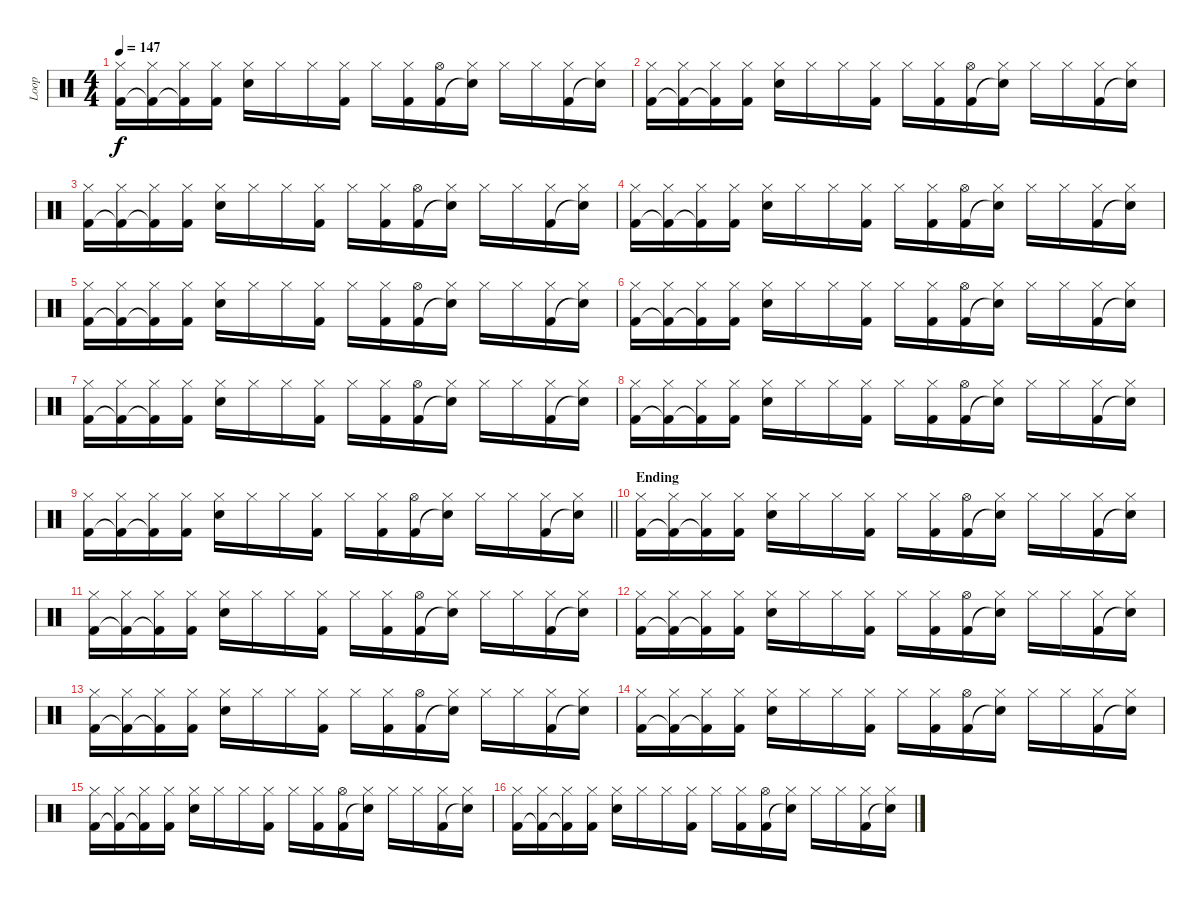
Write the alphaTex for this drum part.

\track ("Loop" "Loop") {instrument percussion}
\staff {score}
\articulation defaults
\ts (4 4)
\tempo 147
\clef neutral
\ks aminor
("Hi-Hat (closed)" "Kick (hit) 2").16{dy f} ("Hi-Hat (closed)" "Kick (hit) 2"{t}).16 ("Hi-Hat (closed)" "Kick (hit) 2"{t}).16 ("Hi-Hat (closed)" "Kick (hit) 2").16 ("Hi-Hat (closed)" "Electric Snare (hit)").16 "Hi-Hat (closed)".16 "Hi-Hat (closed)".16 ("Hi-Hat (closed)" "Kick (hit) 2").16 "Hi-Hat (closed)".16 ("Hi-Hat (closed)" "Kick (hit) 2").16 ("Hi-Hat (open)" "Kick (hit) 2").16 ("Hi-Hat (closed)" "Snare (hit)"{t}).16 "Hi-Hat (closed)".16 "Hi-Hat (closed)".16 ("Hi-Hat (closed)" "Kick (hit) 2").16 ("Hi-Hat (closed)" "Snare (hit)"{t}).16 |
("Hi-Hat (closed)" "Kick (hit) 2").16 ("Hi-Hat (closed)" "Kick (hit) 2"{t}).16 ("Hi-Hat (closed)" "Kick (hit) 2"{t}).16 ("Hi-Hat (closed)" "Kick (hit) 2").16 ("Hi-Hat (closed)" "Electric Snare (hit)").16 "Hi-Hat (closed)".16 "Hi-Hat (closed)".16 ("Hi-Hat (closed)" "Kick (hit) 2").16 "Hi-Hat (closed)".16 ("Hi-Hat (closed)" "Kick (hit) 2").16 ("Hi-Hat (open)" "Kick (hit) 2").16 ("Hi-Hat (closed)" "Snare (hit)"{t}).16 "Hi-Hat (closed)".16 "Hi-Hat (closed)".16 ("Hi-Hat (closed)" "Kick (hit) 2").16 ("Hi-Hat (closed)" "Snare (hit)"{t}).16 |
("Hi-Hat (closed)" "Kick (hit) 2").16 ("Hi-Hat (closed)" "Kick (hit) 2"{t}).16 ("Hi-Hat (closed)" "Kick (hit) 2"{t}).16 ("Hi-Hat (closed)" "Kick (hit) 2").16 ("Hi-Hat (closed)" "Electric Snare (hit)").16 "Hi-Hat (closed)".16 "Hi-Hat (closed)".16 ("Hi-Hat (closed)" "Kick (hit) 2").16 "Hi-Hat (closed)".16 ("Hi-Hat (closed)" "Kick (hit) 2").16 ("Hi-Hat (open)" "Kick (hit) 2").16 ("Hi-Hat (closed)" "Snare (hit)"{t}).16 "Hi-Hat (closed)".16 "Hi-Hat (closed)".16 ("Hi-Hat (closed)" "Kick (hit) 2").16 ("Hi-Hat (closed)" "Snare (hit)"{t}).16 |
("Hi-Hat (closed)" "Kick (hit) 2").16 ("Hi-Hat (closed)" "Kick (hit) 2"{t}).16 ("Hi-Hat (closed)" "Kick (hit) 2"{t}).16 ("Hi-Hat (closed)" "Kick (hit) 2").16 ("Hi-Hat (closed)" "Electric Snare (hit)").16 "Hi-Hat (closed)".16 "Hi-Hat (closed)".16 ("Hi-Hat (closed)" "Kick (hit) 2").16 "Hi-Hat (closed)".16 ("Hi-Hat (closed)" "Kick (hit) 2").16 ("Hi-Hat (open)" "Kick (hit) 2").16 ("Hi-Hat (closed)" "Snare (hit)"{t}).16 "Hi-Hat (closed)".16 "Hi-Hat (closed)".16 ("Hi-Hat (closed)" "Kick (hit) 2").16 ("Hi-Hat (closed)" "Snare (hit)"{t}).16 |
("Hi-Hat (closed)" "Kick (hit) 2").16 ("Hi-Hat (closed)" "Kick (hit) 2"{t}).16 ("Hi-Hat (closed)" "Kick (hit) 2"{t}).16 ("Hi-Hat (closed)" "Kick (hit) 2").16 ("Hi-Hat (closed)" "Electric Snare (hit)").16 "Hi-Hat (closed)".16 "Hi-Hat (closed)".16 ("Hi-Hat (closed)" "Kick (hit) 2").16 "Hi-Hat (closed)".16 ("Hi-Hat (closed)" "Kick (hit) 2").16 ("Hi-Hat (open)" "Kick (hit) 2").16 ("Hi-Hat (closed)" "Snare (hit)"{t}).16 "Hi-Hat (closed)".16 "Hi-Hat (closed)".16 ("Hi-Hat (closed)" "Kick (hit) 2").16 ("Hi-Hat (closed)" "Snare (hit)"{t}).16 |
("Hi-Hat (closed)" "Kick (hit) 2").16 ("Hi-Hat (closed)" "Kick (hit) 2"{t}).16 ("Hi-Hat (closed)" "Kick (hit) 2"{t}).16 ("Hi-Hat (closed)" "Kick (hit) 2").16 ("Hi-Hat (closed)" "Electric Snare (hit)").16 "Hi-Hat (closed)".16 "Hi-Hat (closed)".16 ("Hi-Hat (closed)" "Kick (hit) 2").16 "Hi-Hat (closed)".16 ("Hi-Hat (closed)" "Kick (hit) 2").16 ("Hi-Hat (open)" "Kick (hit) 2").16 ("Hi-Hat (closed)" "Snare (hit)"{t}).16 "Hi-Hat (closed)".16 "Hi-Hat (closed)".16 ("Hi-Hat (closed)" "Kick (hit) 2").16 ("Hi-Hat (closed)" "Snare (hit)"{t}).16 |
("Hi-Hat (closed)" "Kick (hit) 2").16 ("Hi-Hat (closed)" "Kick (hit) 2"{t}).16 ("Hi-Hat (closed)" "Kick (hit) 2"{t}).16 ("Hi-Hat (closed)" "Kick (hit) 2").16 ("Hi-Hat (closed)" "Electric Snare (hit)").16 "Hi-Hat (closed)".16 "Hi-Hat (closed)".16 ("Hi-Hat (closed)" "Kick (hit) 2").16 "Hi-Hat (closed)".16 ("Hi-Hat (closed)" "Kick (hit) 2").16 ("Hi-Hat (open)" "Kick (hit) 2").16 ("Hi-Hat (closed)" "Snare (hit)"{t}).16 "Hi-Hat (closed)".16 "Hi-Hat (closed)".16 ("Hi-Hat (closed)" "Kick (hit) 2").16 ("Hi-Hat (closed)" "Snare (hit)"{t}).16 |
("Hi-Hat (closed)" "Kick (hit) 2").16 ("Hi-Hat (closed)" "Kick (hit) 2"{t}).16 ("Hi-Hat (closed)" "Kick (hit) 2"{t}).16 ("Hi-Hat (closed)" "Kick (hit) 2").16 ("Hi-Hat (closed)" "Electric Snare (hit)").16 "Hi-Hat (closed)".16 "Hi-Hat (closed)".16 ("Hi-Hat (closed)" "Kick (hit) 2").16 "Hi-Hat (closed)".16 ("Hi-Hat (closed)" "Kick (hit) 2").16 ("Hi-Hat (open)" "Kick (hit) 2").16 ("Hi-Hat (closed)" "Snare (hit)"{t}).16 "Hi-Hat (closed)".16 "Hi-Hat (closed)".16 ("Hi-Hat (closed)" "Kick (hit) 2").16 ("Hi-Hat (closed)" "Snare (hit)"{t}).16 |
\barLineRight lightlight
("Hi-Hat (closed)" "Kick (hit) 2").16 ("Hi-Hat (closed)" "Kick (hit) 2"{t}).16 ("Hi-Hat (closed)" "Kick (hit) 2"{t}).16 ("Hi-Hat (closed)" "Kick (hit) 2").16 ("Hi-Hat (closed)" "Electric Snare (hit)").16 "Hi-Hat (closed)".16 "Hi-Hat (closed)".16 ("Hi-Hat (closed)" "Kick (hit) 2").16 "Hi-Hat (closed)".16 ("Hi-Hat (closed)" "Kick (hit) 2").16 ("Hi-Hat (open)" "Kick (hit) 2").16 ("Hi-Hat (closed)" "Snare (hit)"{t}).16 "Hi-Hat (closed)".16 "Hi-Hat (closed)".16 ("Hi-Hat (closed)" "Kick (hit) 2").16 ("Hi-Hat (closed)" "Snare (hit)"{t}).16 |
\section ("" "Ending")
("Hi-Hat (closed)" "Kick (hit) 2").16 ("Hi-Hat (closed)" "Kick (hit) 2"{t}).16 ("Hi-Hat (closed)" "Kick (hit) 2"{t}).16 ("Hi-Hat (closed)" "Kick (hit) 2").16 ("Hi-Hat (closed)" "Electric Snare (hit)").16 "Hi-Hat (closed)".16 "Hi-Hat (closed)".16 ("Hi-Hat (closed)" "Kick (hit) 2").16 "Hi-Hat (closed)".16 ("Hi-Hat (closed)" "Kick (hit) 2").16 ("Hi-Hat (open)" "Kick (hit) 2").16 ("Hi-Hat (closed)" "Snare (hit)"{t}).16 "Hi-Hat (closed)".16 "Hi-Hat (closed)".16 ("Hi-Hat (closed)" "Kick (hit) 2").16 ("Hi-Hat (closed)" "Snare (hit)"{t}).16 |
("Hi-Hat (closed)" "Kick (hit) 2").16 ("Hi-Hat (closed)" "Kick (hit) 2"{t}).16 ("Hi-Hat (closed)" "Kick (hit) 2"{t}).16 ("Hi-Hat (closed)" "Kick (hit) 2").16 ("Hi-Hat (closed)" "Electric Snare (hit)").16 "Hi-Hat (closed)".16 "Hi-Hat (closed)".16 ("Hi-Hat (closed)" "Kick (hit) 2").16 "Hi-Hat (closed)".16 ("Hi-Hat (closed)" "Kick (hit) 2").16 ("Hi-Hat (open)" "Kick (hit) 2").16 ("Hi-Hat (closed)" "Snare (hit)"{t}).16 "Hi-Hat (closed)".16 "Hi-Hat (closed)".16 ("Hi-Hat (closed)" "Kick (hit) 2").16 ("Hi-Hat (closed)" "Snare (hit)"{t}).16 |
("Hi-Hat (closed)" "Kick (hit) 2").16 ("Hi-Hat (closed)" "Kick (hit) 2"{t}).16 ("Hi-Hat (closed)" "Kick (hit) 2"{t}).16 ("Hi-Hat (closed)" "Kick (hit) 2").16 ("Hi-Hat (closed)" "Electric Snare (hit)").16 "Hi-Hat (closed)".16 "Hi-Hat (closed)".16 ("Hi-Hat (closed)" "Kick (hit) 2").16 "Hi-Hat (closed)".16 ("Hi-Hat (closed)" "Kick (hit) 2").16 ("Hi-Hat (open)" "Kick (hit) 2").16 ("Hi-Hat (closed)" "Snare (hit)"{t}).16 "Hi-Hat (closed)".16 "Hi-Hat (closed)".16 ("Hi-Hat (closed)" "Kick (hit) 2").16 ("Hi-Hat (closed)" "Snare (hit)"{t}).16 |
("Hi-Hat (closed)" "Kick (hit) 2").16 ("Hi-Hat (closed)" "Kick (hit) 2"{t}).16 ("Hi-Hat (closed)" "Kick (hit) 2"{t}).16 ("Hi-Hat (closed)" "Kick (hit) 2").16 ("Hi-Hat (closed)" "Electric Snare (hit)").16 "Hi-Hat (closed)".16 "Hi-Hat (closed)".16 ("Hi-Hat (closed)" "Kick (hit) 2").16 "Hi-Hat (closed)".16 ("Hi-Hat (closed)" "Kick (hit) 2").16 ("Hi-Hat (open)" "Kick (hit) 2").16 ("Hi-Hat (closed)" "Snare (hit)"{t}).16 "Hi-Hat (closed)".16 "Hi-Hat (closed)".16 ("Hi-Hat (closed)" "Kick (hit) 2").16 ("Hi-Hat (closed)" "Snare (hit)"{t}).16 |
("Hi-Hat (closed)" "Kick (hit) 2").16 ("Hi-Hat (closed)" "Kick (hit) 2"{t}).16 ("Hi-Hat (closed)" "Kick (hit) 2"{t}).16 ("Hi-Hat (closed)" "Kick (hit) 2").16 ("Hi-Hat (closed)" "Electric Snare (hit)").16 "Hi-Hat (closed)".16 "Hi-Hat (closed)".16 ("Hi-Hat (closed)" "Kick (hit) 2").16 "Hi-Hat (closed)".16 ("Hi-Hat (closed)" "Kick (hit) 2").16 ("Hi-Hat (open)" "Kick (hit) 2").16 ("Hi-Hat (closed)" "Snare (hit)"{t}).16 "Hi-Hat (closed)".16 "Hi-Hat (closed)".16 ("Hi-Hat (closed)" "Kick (hit) 2").16 ("Hi-Hat (closed)" "Snare (hit)"{t}).16 |
("Hi-Hat (closed)" "Kick (hit) 2").16 ("Hi-Hat (closed)" "Kick (hit) 2"{t}).16 ("Hi-Hat (closed)" "Kick (hit) 2"{t}).16 ("Hi-Hat (closed)" "Kick (hit) 2").16 ("Hi-Hat (closed)" "Electric Snare (hit)").16 "Hi-Hat (closed)".16 "Hi-Hat (closed)".16 ("Hi-Hat (closed)" "Kick (hit) 2").16 "Hi-Hat (closed)".16 ("Hi-Hat (closed)" "Kick (hit) 2").16 ("Hi-Hat (open)" "Kick (hit) 2").16 ("Hi-Hat (closed)" "Snare (hit)"{t}).16 "Hi-Hat (closed)".16 "Hi-Hat (closed)".16 ("Hi-Hat (closed)" "Kick (hit) 2").16 ("Hi-Hat (closed)" "Snare (hit)"{t}).16 |
("Hi-Hat (closed)" "Kick (hit) 2").16 ("Hi-Hat (closed)" "Kick (hit) 2"{t}).16 ("Hi-Hat (closed)" "Kick (hit) 2"{t}).16 ("Hi-Hat (closed)" "Kick (hit) 2").16 ("Hi-Hat (closed)" "Electric Snare (hit)").16 "Hi-Hat (closed)".16 "Hi-Hat (closed)".16 ("Hi-Hat (closed)" "Kick (hit) 2").16 "Hi-Hat (closed)".16 ("Hi-Hat (closed)" "Kick (hit) 2").16 ("Hi-Hat (open)" "Kick (hit) 2").16 ("Hi-Hat (closed)" "Snare (hit)"{t}).16 "Hi-Hat (closed)".16 "Hi-Hat (closed)".16 ("Hi-Hat (closed)" "Kick (hit) 2").16 ("Hi-Hat (closed)" "Snare (hit)"{t}).16
